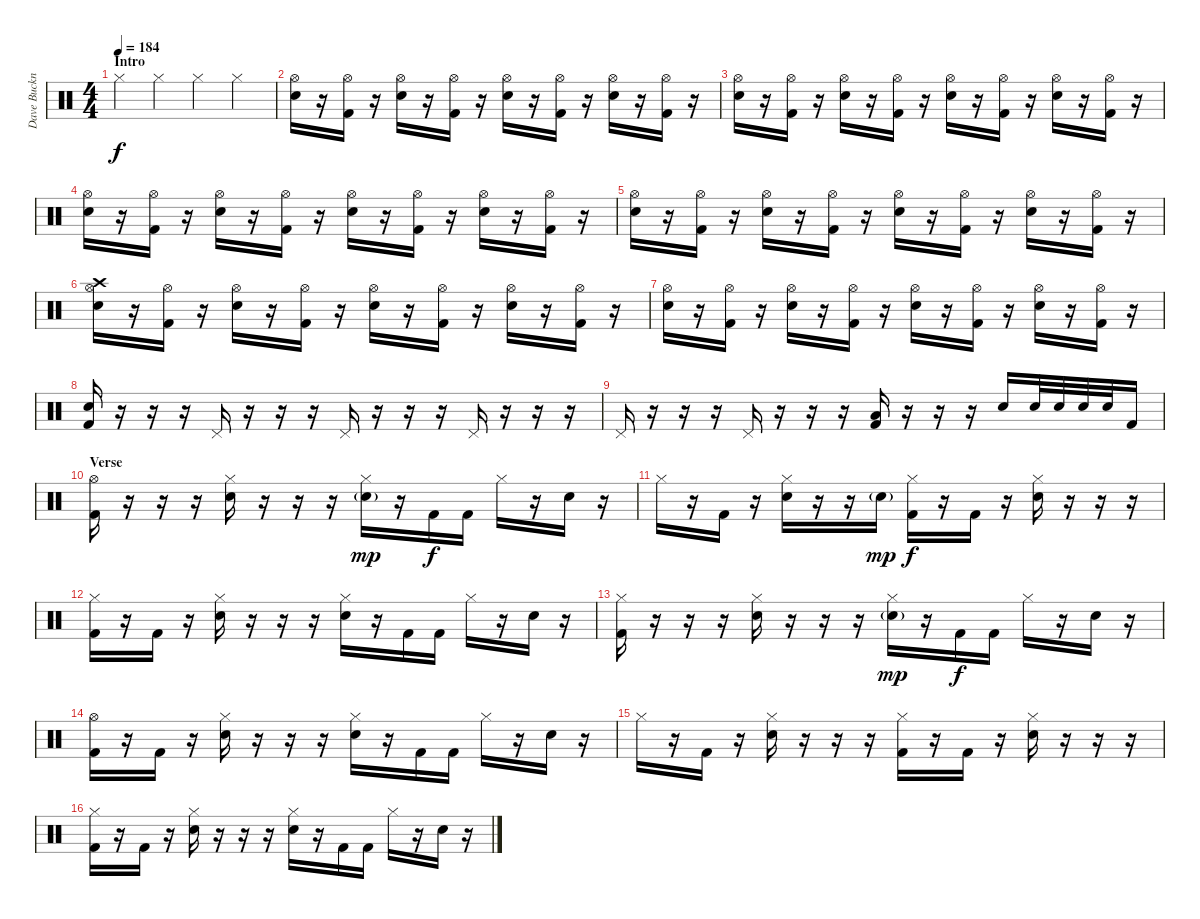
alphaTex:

\track ("Dave Buckner" "Dave Buckn") {instrument percussion}
\staff {score}
\articulation defaults
\ts (4 4)
\section ("" "Intro")
\tempo 184
\clef neutral
\ks c "Hi-Hat (closed)".4{dy f} "Hi-Hat (closed)".4 "Hi-Hat (closed)".4 "Hi-Hat (closed)".4
|
("Hi-Hat (open)" "Snare (hit) 2").16 r.16 ("Hi-Hat (open)" "Kick (hit) 2").16 r.16 ("Hi-Hat (open)" "Snare (hit) 2").16 r.16 ("Hi-Hat (open)" "Kick (hit) 2").16 r.16 ("Hi-Hat (open)" "Snare (hit) 2").16 r.16 ("Hi-Hat (open)" "Kick (hit) 2").16 r.16 ("Hi-Hat (open)" "Snare (hit) 2").16 r.16 ("Hi-Hat (open)" "Kick (hit) 2").16 r.16 |
("Hi-Hat (open)" "Snare (hit) 2").16 r.16 ("Hi-Hat (open)" "Kick (hit) 2").16 r.16 ("Hi-Hat (open)" "Snare (hit) 2").16 r.16 ("Hi-Hat (open)" "Kick (hit) 2").16 r.16 ("Hi-Hat (open)" "Snare (hit) 2").16 r.16 ("Hi-Hat (open)" "Kick (hit) 2").16 r.16 ("Hi-Hat (open)" "Snare (hit) 2").16 r.16 ("Hi-Hat (open)" "Kick (hit) 2").16 r.16 |
("Hi-Hat (open)" "Snare (hit) 2").16 r.16 ("Hi-Hat (open)" "Kick (hit) 2").16 r.16 ("Hi-Hat (open)" "Snare (hit) 2").16 r.16 ("Hi-Hat (open)" "Kick (hit) 2").16 r.16 ("Hi-Hat (open)" "Snare (hit) 2").16 r.16 ("Hi-Hat (open)" "Kick (hit) 2").16 r.16 ("Hi-Hat (open)" "Snare (hit) 2").16 r.16 ("Hi-Hat (open)" "Kick (hit) 2").16 r.16 |
("Hi-Hat (open)" "Snare (hit) 2").16 r.16 ("Hi-Hat (open)" "Kick (hit) 2").16 r.16 ("Hi-Hat (open)" "Snare (hit) 2").16 r.16 ("Hi-Hat (open)" "Kick (hit) 2").16 r.16 ("Hi-Hat (open)" "Snare (hit) 2").16 r.16 ("Hi-Hat (open)" "Kick (hit) 2").16 r.16 ("Hi-Hat (open)" "Snare (hit) 2").16 r.16 ("Hi-Hat (open)" "Kick (hit) 2").16 r.16 |
("Crash high (hit)" "Hi-Hat (open)" "Snare (hit) 2").16 r.16 ("Hi-Hat (open)" "Kick (hit) 2").16 r.16 ("Hi-Hat (open)" "Snare (hit) 2").16 r.16 ("Hi-Hat (open)" "Kick (hit) 2").16 r.16 ("Hi-Hat (open)" "Snare (hit) 2").16 r.16 ("Hi-Hat (open)" "Kick (hit) 2").16 r.16 ("Hi-Hat (open)" "Snare (hit) 2").16 r.16 ("Hi-Hat (open)" "Kick (hit) 2").16 r.16 |
("Hi-Hat (open)" "Snare (hit) 2").16 r.16 ("Hi-Hat (open)" "Kick (hit) 2").16 r.16 ("Hi-Hat (open)" "Snare (hit) 2").16 r.16 ("Hi-Hat (open)" "Kick (hit) 2").16 r.16 ("Hi-Hat (open)" "Snare (hit) 2").16 r.16 ("Hi-Hat (open)" "Kick (hit) 2").16 r.16 ("Hi-Hat (open)" "Snare (hit) 2").16 r.16 ("Hi-Hat (open)" "Kick (hit) 2").16 r.16 |
("Snare (hit) 2" "Kick (hit) 2").16 r.16 r.16 r.16 "Pedal Hi-Hat (hit)".16 r.16 r.16 r.16 "Pedal Hi-Hat (hit)".16 r.16 r.16 r.16 "Pedal Hi-Hat (hit)".16 r.16 r.16 r.16 |
"Pedal Hi-Hat (hit)".16 r.16 r.16 r.16 "Pedal Hi-Hat (hit)".16 r.16 r.16 r.16 ("Low Floor Tom (hit)" "Kick (hit) 2").16 r.16 r.16 r.16 "Snare (hit) 2".16 "Snare (hit) 2".32 "Snare (hit) 2".32 "Snare (hit) 2".32 "Snare (hit) 2".32 "Kick (hit) 2".16 |
\section ("" "Verse")
("Hi-Hat (open)" "Kick (hit) 2").16 r.16 r.16 r.16 ("Hi-Hat (closed)" "Snare (hit) 2").16 r.16 r.16 r.16 ("Hi-Hat (closed)" "Snare (hit) 2"{g}).16{dy mp} r.16 "Kick (hit) 2".16{dy f} "Kick (hit) 2".16 "Hi-Hat (closed)".16 r.16 "Snare (hit) 2".16 r.16 |
"Hi-Hat (closed)".16 r.16 "Kick (hit) 2".16 r.16 ("Hi-Hat (closed)" "Snare (hit) 2").16 r.16 r.16 "Snare (hit) 2"{g}.16{dy mp} ("Hi-Hat (closed)" "Kick (hit) 2").16{dy f} r.16 "Kick (hit) 2".16 r.16 ("Hi-Hat (closed)" "Snare (hit) 2").16 r.16 r.16 r.16 |
("Hi-Hat (closed)" "Kick (hit) 2").16 r.16 "Kick (hit) 2".16 r.16 ("Hi-Hat (closed)" "Snare (hit) 2").16 r.16 r.16 r.16 ("Hi-Hat (closed)" "Snare (hit) 2").16 r.16 "Kick (hit) 2".16 "Kick (hit) 2".16 "Hi-Hat (closed)".16 r.16 "Snare (hit) 2".16 r.16 |
("Hi-Hat (closed)" "Kick (hit) 2").16 r.16 r.16 r.16 ("Hi-Hat (closed)" "Snare (hit) 2").16 r.16 r.16 r.16 ("Hi-Hat (closed)" "Snare (hit) 2"{g}).16{dy mp} r.16 "Kick (hit) 2".16{dy f} "Kick (hit) 2".16 "Hi-Hat (closed)".16 r.16 "Snare (hit) 2".16 r.16 |
("Hi-Hat (open)" "Kick (hit) 2").16 r.16 "Kick (hit) 2".16 r.16 ("Hi-Hat (closed)" "Snare (hit) 2").16 r.16 r.16 r.16 ("Hi-Hat (closed)" "Snare (hit) 2").16 r.16 "Kick (hit) 2".16 "Kick (hit) 2".16 "Hi-Hat (closed)".16 r.16 "Snare (hit) 2".16 r.16 |
"Hi-Hat (closed)".16 r.16 "Kick (hit) 2".16 r.16 ("Hi-Hat (closed)" "Snare (hit) 2").16 r.16 r.16 r.16 ("Hi-Hat (closed)" "Kick (hit) 2").16 r.16 "Kick (hit) 2".16 r.16 ("Hi-Hat (closed)" "Snare (hit) 2").16 r.16 r.16 r.16 |
("Hi-Hat (closed)" "Kick (hit) 2").16 r.16 "Kick (hit) 2".16 r.16 ("Hi-Hat (closed)" "Snare (hit) 2").16 r.16 r.16 r.16 ("Hi-Hat (closed)" "Snare (hit) 2").16 r.16 "Kick (hit) 2".16 "Kick (hit) 2".16 "Hi-Hat (closed)".16 r.16 "Snare (hit) 2".16 r.16
